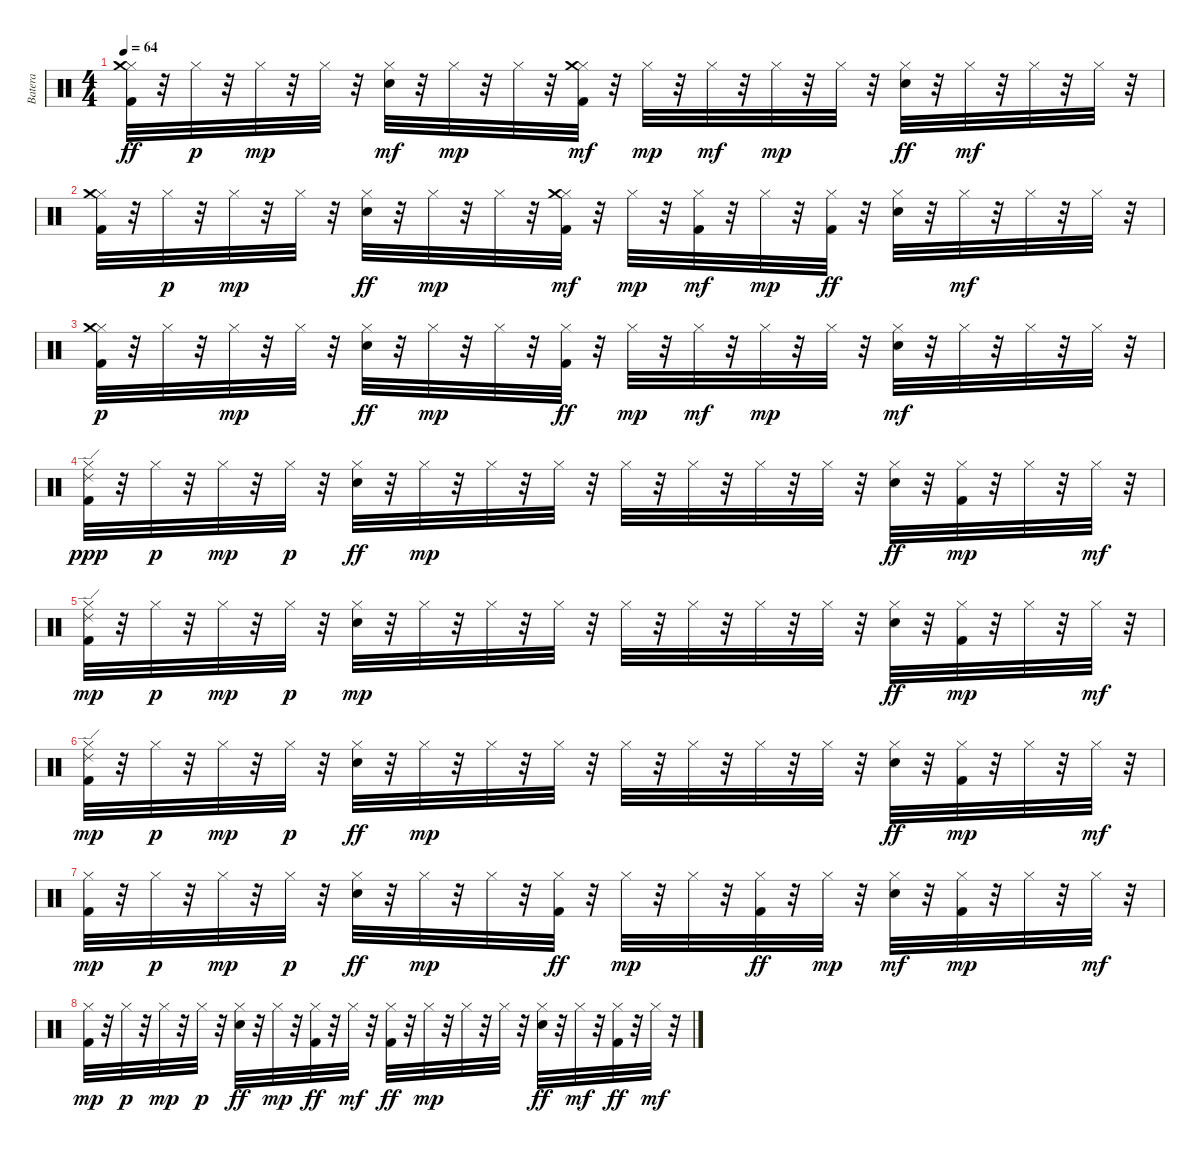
\track ("Batera" "Batera") {instrument percussion}
\staff {score}
\articulation defaults
\ts (4 4)
\tempo 64
\clef neutral
\ks c
("Hi-Hat (closed)" "Kick (hit) 2" "Crash medium (hit)").32{dy ff} r.32 "Hi-Hat (closed)".32{dy p} r.32 "Hi-Hat (closed)".32{dy mp} r.32 "Hi-Hat (closed)".32 r.32 ("Hi-Hat (closed)" "Snare (hit) 2").32{dy mf} r.32 "Hi-Hat (closed)".32{dy mp} r.32 "Hi-Hat (closed)".32 r.32 ("Hi-Hat (closed)" "Crash medium (hit)" "Kick (hit) 2").32{dy mf} r.32 "Hi-Hat (closed)".32{dy mp} r.32 "Hi-Hat (closed)".32{dy mf} r.32 "Hi-Hat (closed)".32{dy mp} r.32 "Hi-Hat (closed)".32 r.32 ("Hi-Hat (closed)" "Snare (hit) 2").32{dy ff} r.32 "Hi-Hat (closed)".32{dy mf} r.32 "Hi-Hat (closed)".32 r.32 "Hi-Hat (closed)".32 r.32 |
("Hi-Hat (closed)" "Kick (hit) 2" "Crash medium (hit)").32 r.32 "Hi-Hat (closed)".32{dy p} r.32 "Hi-Hat (closed)".32{dy mp} r.32 "Hi-Hat (closed)".32 r.32 ("Hi-Hat (closed)" "Snare (hit) 2").32{dy ff} r.32 "Hi-Hat (closed)".32{dy mp} r.32 "Hi-Hat (closed)".32 r.32 ("Hi-Hat (closed)" "Kick (hit) 2" "Crash medium (hit)").32{dy mf} r.32 "Hi-Hat (closed)".32{dy mp} r.32 ("Hi-Hat (closed)" "Kick (hit) 2").32{dy mf} r.32 "Hi-Hat (closed)".32{dy mp} r.32 ("Hi-Hat (closed)" "Kick (hit) 2").32{dy ff} r.32 ("Hi-Hat (closed)" "Snare (hit) 2").32 r.32 "Hi-Hat (closed)".32{dy mf} r.32 "Hi-Hat (closed)".32 r.32 "Hi-Hat (closed)".32 r.32 |
("Hi-Hat (closed)" "Kick (hit) 2" "Crash medium (hit)").32{dy p} r.32 "Hi-Hat (closed)".32 r.32 "Hi-Hat (closed)".32{dy mp} r.32 "Hi-Hat (closed)".32 r.32 ("Hi-Hat (closed)" "Snare (hit) 2").32{dy ff} r.32 "Hi-Hat (closed)".32{dy mp} r.32 "Hi-Hat (closed)".32 r.32 ("Hi-Hat (closed)" "Kick (hit) 2").32{dy ff} r.32 "Hi-Hat (closed)".32{dy mp} r.32 "Hi-Hat (closed)".32{dy mf} r.32 "Hi-Hat (closed)".32{dy mp} r.32 "Hi-Hat (closed)".32 r.32 ("Hi-Hat (closed)" "Snare (hit) 2").32{dy mf} r.32 "Hi-Hat (closed)".32 r.32 "Hi-Hat (closed)".32 r.32 "Hi-Hat (closed)".32 r.32 |
("Hi-Hat (closed)" "Kick (hit) 2" "Ride (edge) 2").32{dy ppp} r.32 "Hi-Hat (closed)".32{dy p} r.32 "Hi-Hat (closed)".32{dy mp} r.32 "Hi-Hat (closed)".32{dy p} r.32 ("Hi-Hat (closed)" "Snare (hit) 2").32{dy ff} r.32 "Hi-Hat (closed)".32{dy mp} r.32 "Hi-Hat (closed)".32 r.32 "Hi-Hat (closed)".32 r.32 "Hi-Hat (closed)".32 r.32 "Hi-Hat (closed)".32 r.32 "Hi-Hat (closed)".32 r.32 "Hi-Hat (closed)".32 r.32 ("Hi-Hat (closed)" "Snare (hit) 2").32{dy ff} r.32 ("Hi-Hat (closed)" "Kick (hit) 2").32{dy mp} r.32 "Hi-Hat (closed)".32 r.32 "Hi-Hat (closed)".32{dy mf} r.32 |
("Hi-Hat (closed)" "Kick (hit) 2" "Ride (edge) 2").32{dy mp} r.32 "Hi-Hat (closed)".32{dy p} r.32 "Hi-Hat (closed)".32{dy mp} r.32 "Hi-Hat (closed)".32{dy p} r.32 ("Hi-Hat (closed)" "Snare (hit) 2").32{dy mp} r.32 "Hi-Hat (closed)".32 r.32 "Hi-Hat (closed)".32 r.32 "Hi-Hat (closed)".32 r.32 "Hi-Hat (closed)".32 r.32 "Hi-Hat (closed)".32 r.32 "Hi-Hat (closed)".32 r.32 "Hi-Hat (closed)".32 r.32 ("Hi-Hat (closed)" "Snare (hit) 2").32{dy ff} r.32 ("Hi-Hat (closed)" "Kick (hit) 2").32{dy mp} r.32 "Hi-Hat (closed)".32 r.32 "Hi-Hat (closed)".32{dy mf} r.32 |
("Hi-Hat (closed)" "Kick (hit) 2" "Ride (edge) 2").32{dy mp} r.32 "Hi-Hat (closed)".32{dy p} r.32 "Hi-Hat (closed)".32{dy mp} r.32 "Hi-Hat (closed)".32{dy p} r.32 ("Hi-Hat (closed)" "Snare (hit) 2").32{dy ff} r.32 "Hi-Hat (closed)".32{dy mp} r.32 "Hi-Hat (closed)".32 r.32 "Hi-Hat (closed)".32 r.32 "Hi-Hat (closed)".32 r.32 "Hi-Hat (closed)".32 r.32 "Hi-Hat (closed)".32 r.32 "Hi-Hat (closed)".32 r.32 ("Hi-Hat (closed)" "Snare (hit) 2").32{dy ff} r.32 ("Hi-Hat (closed)" "Kick (hit) 2").32{dy mp} r.32 "Hi-Hat (closed)".32 r.32 "Hi-Hat (closed)".32{dy mf} r.32 |
("Hi-Hat (closed)" "Kick (hit) 2").32{dy mp} r.32 "Hi-Hat (closed)".32{dy p} r.32 "Hi-Hat (closed)".32{dy mp} r.32 "Hi-Hat (closed)".32{dy p} r.32 ("Hi-Hat (closed)" "Snare (hit) 2").32{dy ff} r.32 "Hi-Hat (closed)".32{dy mp} r.32 "Hi-Hat (closed)".32 r.32 ("Hi-Hat (closed)" "Kick (hit) 2").32{dy ff} r.32 "Hi-Hat (closed)".32{dy mp} r.32 "Hi-Hat (closed)".32 r.32 ("Hi-Hat (closed)" "Kick (hit) 2").32{dy ff} r.32 "Hi-Hat (closed)".32{dy mp} r.32 ("Hi-Hat (closed)" "Snare (hit) 2").32{dy mf} r.32 ("Hi-Hat (closed)" "Kick (hit) 2").32{dy mp} r.32 "Hi-Hat (closed)".32 r.32 "Hi-Hat (closed)".32{dy mf} r.32 |
("Hi-Hat (closed)" "Kick (hit) 2").32{dy mp} r.32 "Hi-Hat (closed)".32{dy p} r.32 "Hi-Hat (closed)".32{dy mp} r.32 "Hi-Hat (closed)".32{dy p} r.32 ("Hi-Hat (closed)" "Snare (hit) 2").32{dy ff} r.32 "Hi-Hat (closed)".32{dy mp} r.32 ("Hi-Hat (closed)" "Kick (hit) 2").32{dy ff} r.32 "Hi-Hat (closed)".32{dy mf} r.32 ("Hi-Hat (closed)" "Kick (hit) 2").32{dy ff} r.32 "Hi-Hat (closed)".32{dy mp} r.32 "Hi-Hat (closed)".32 r.32 "Hi-Hat (closed)".32 r.32 ("Hi-Hat (closed)" "Snare (hit) 2").32{dy ff} r.32 "Hi-Hat (closed)".32{dy mf} r.32 ("Hi-Hat (closed)" "Kick (hit) 2").32{dy ff} r.32 "Hi-Hat (closed)".32{dy mf} r.32
